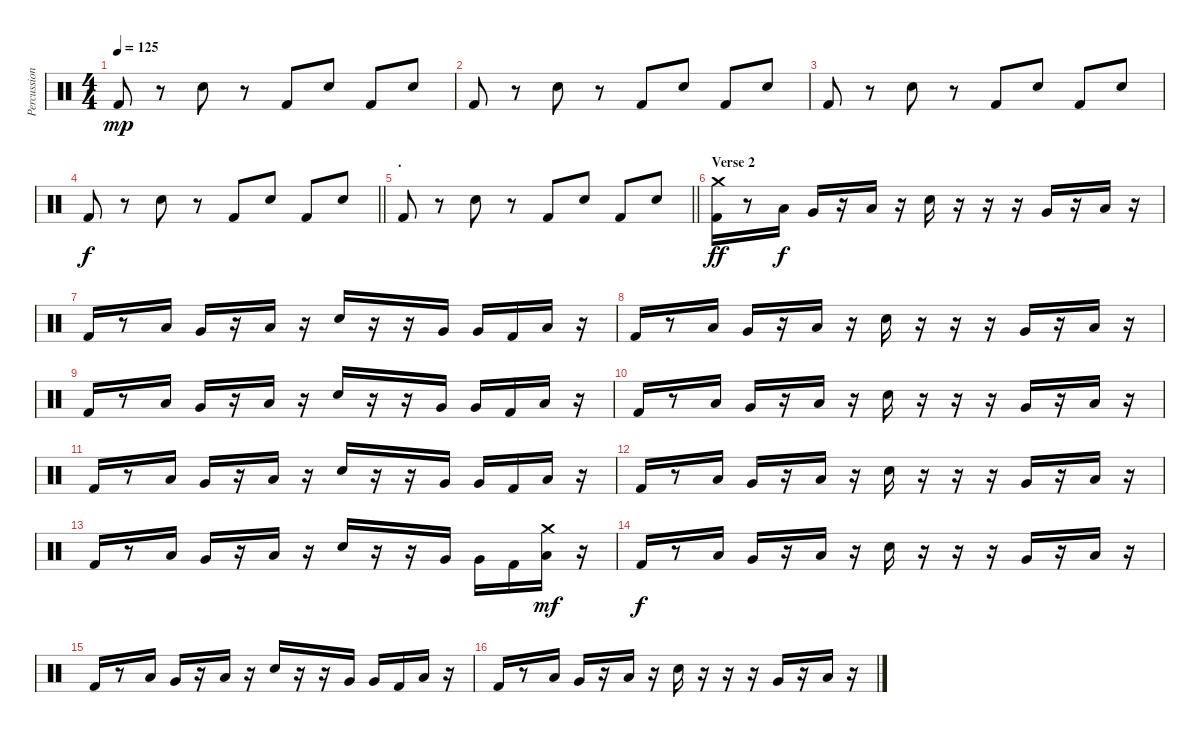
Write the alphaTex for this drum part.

\track ("Percussion" "Percussion") {instrument percussion}
\staff {score}
\articulation defaults
\ts (4 4)
\tempo 125
\clef neutral
\ks c "Kick (hit) 2".8{dy mp}
r.8 "Snare (hit) 2".8 r.8 "Kick (hit) 2".8 "Snare (hit) 2".8 "Kick (hit) 2".8 "Snare (hit) 2".8 |
"Kick (hit) 2".8 r.8 "Snare (hit) 2".8 r.8 "Kick (hit) 2".8 "Snare (hit) 2".8 "Kick (hit) 2".8 "Snare (hit) 2".8 |
"Kick (hit) 2".8 r.8 "Snare (hit) 2".8 r.8 "Kick (hit) 2".8 "Snare (hit) 2".8 "Kick (hit) 2".8 "Snare (hit) 2".8 |
\barLineRight lightlight "Kick (hit) 2".8{dy f}
r.8 "Snare (hit) 2".8 r.8 "Kick (hit) 2".8 "Snare (hit) 2".8 "Kick (hit) 2".8 "Snare (hit) 2".8 |
\section ("" ".")
\barLineRight lightlight "Kick (hit) 2".8
r.8 "Snare (hit) 2".8 r.8 "Kick (hit) 2".8 "Snare (hit) 2".8 "Kick (hit) 2".8 "Snare (hit) 2".8 |
\section ("" "Verse 2")
("Crash medium (hit)" "Kick (hit) 2").16{dy ff} r.8 "Low Tom (hit)".16{dy f} "Very Low Tom (hit)".16 r.16 "Low Floor Tom (hit)".16 r.16 "Snare (hit) 2".16 r.16 r.16 r.16 "Very Low Tom (hit)".16 r.16 "Low Tom (hit)".16 r.16 |
"Kick (hit) 2".16 r.8 "Low Tom (hit)".16 "Very Low Tom (hit)".16 r.16 "Low Floor Tom (hit)".16 r.16 "Snare (hit) 2".16 r.16 r.16 "Very Low Tom (hit)".16 "Very Low Tom (hit)".16 "Kick (hit) 2".16 "Low Tom (hit)".16 r.16 |
"Kick (hit) 2".16 r.8 "Low Tom (hit)".16 "Very Low Tom (hit)".16 r.16 "Low Floor Tom (hit)".16 r.16 "Snare (hit) 2".16 r.16 r.16 r.16 "Very Low Tom (hit)".16 r.16 "Low Tom (hit)".16 r.16 |
"Kick (hit) 2".16 r.8 "Low Tom (hit)".16 "Very Low Tom (hit)".16 r.16 "Low Floor Tom (hit)".16 r.16 "Snare (hit) 2".16 r.16 r.16 "Very Low Tom (hit)".16 "Very Low Tom (hit)".16 "Kick (hit) 2".16 "Low Tom (hit)".16 r.16 |
"Kick (hit) 2".16 r.8 "Low Tom (hit)".16 "Very Low Tom (hit)".16 r.16 "Low Floor Tom (hit)".16 r.16 "Snare (hit) 2".16 r.16 r.16 r.16 "Very Low Tom (hit)".16 r.16 "Low Tom (hit)".16 r.16 |
"Kick (hit) 2".16 r.8 "Low Tom (hit)".16 "Very Low Tom (hit)".16 r.16 "Low Floor Tom (hit)".16 r.16 "Snare (hit) 2".16 r.16 r.16 "Very Low Tom (hit)".16 "Very Low Tom (hit)".16 "Kick (hit) 2".16 "Low Tom (hit)".16 r.16 |
"Kick (hit) 2".16 r.8 "Low Tom (hit)".16 "Very Low Tom (hit)".16 r.16 "Low Floor Tom (hit)".16 r.16 "Snare (hit) 2".16 r.16 r.16 r.16 "Very Low Tom (hit)".16 r.16 "Low Tom (hit)".16 r.16 |
"Kick (hit) 2".16 r.8 "Low Tom (hit)".16 "Very Low Tom (hit)".16 r.16 "Low Floor Tom (hit)".16 r.16 "Snare (hit) 2".16 r.16 r.16 "Very Low Tom (hit)".16 "Very Low Tom (hit)".16 "Kick (hit) 2".16 ("Low Tom (hit)" "Crash medium (hit)").16{dy mf} r.16 |
"Kick (hit) 2".16{dy f} r.8 "Low Tom (hit)".16 "Very Low Tom (hit)".16 r.16 "Low Floor Tom (hit)".16 r.16 "Snare (hit) 2".16 r.16 r.16 r.16 "Very Low Tom (hit)".16 r.16 "Low Tom (hit)".16 r.16 |
"Kick (hit) 2".16 r.8 "Low Tom (hit)".16 "Very Low Tom (hit)".16 r.16 "Low Floor Tom (hit)".16 r.16 "Snare (hit) 2".16 r.16 r.16 "Very Low Tom (hit)".16 "Very Low Tom (hit)".16 "Kick (hit) 2".16 "Low Tom (hit)".16 r.16 |
"Kick (hit) 2".16 r.8 "Low Tom (hit)".16 "Very Low Tom (hit)".16 r.16 "Low Floor Tom (hit)".16 r.16 "Snare (hit) 2".16 r.16 r.16 r.16 "Very Low Tom (hit)".16 r.16 "Low Tom (hit)".16 r.16
